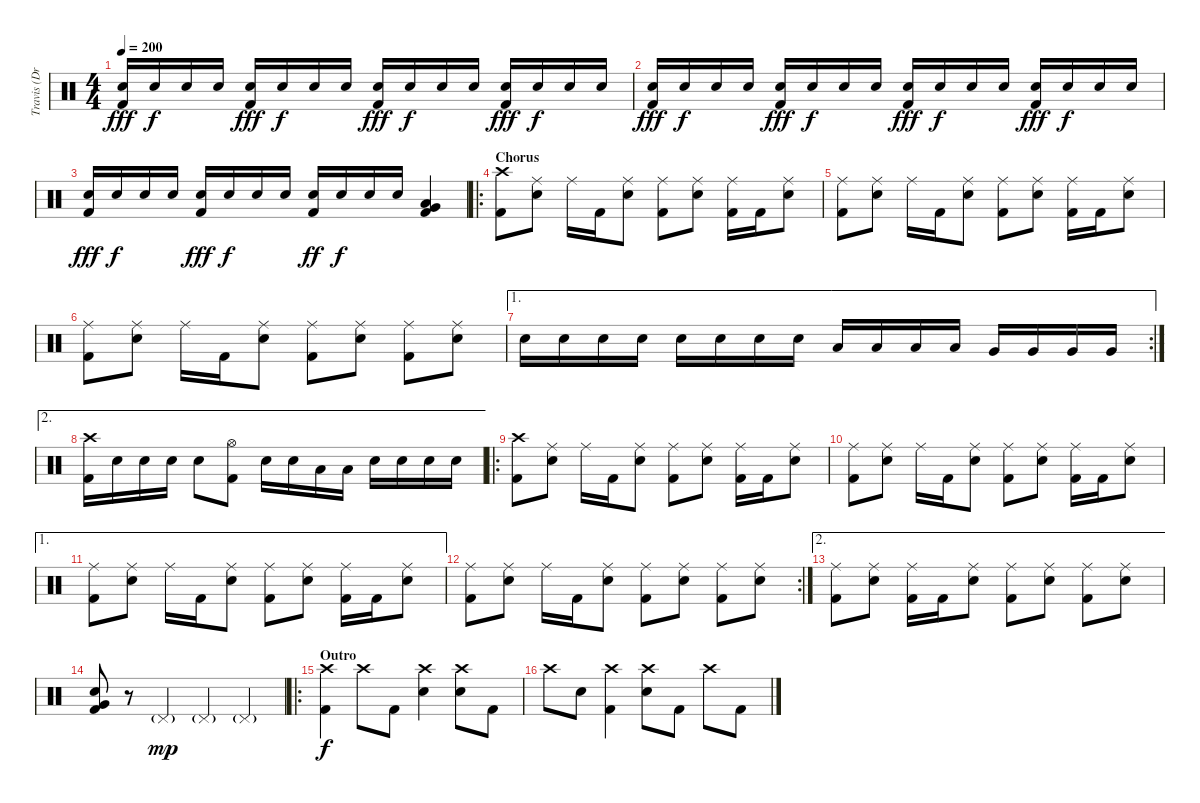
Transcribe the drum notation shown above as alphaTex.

\track ("Travis (Drums)" "Travis (Dr") {instrument percussion}
\staff {score}
\articulation defaults
\ts (4 4)
\tempo 200
\clef neutral
\ks c
("Electric Snare (hit)" "Kick (hit) 2").16{dy fff} "Electric Snare (hit)".16{dy f} "Electric Snare (hit)".16 "Electric Snare (hit)".16 ("Electric Snare (hit)" "Kick (hit) 2").16{dy fff} "Electric Snare (hit)".16{dy f} "Electric Snare (hit)".16 "Electric Snare (hit)".16 ("Electric Snare (hit)" "Kick (hit) 2").16{dy fff} "Electric Snare (hit)".16{dy f} "Electric Snare (hit)".16 "Electric Snare (hit)".16 ("Electric Snare (hit)" "Kick (hit) 2").16{dy fff} "Electric Snare (hit)".16{dy f} "Electric Snare (hit)".16 "Electric Snare (hit)".16 |
("Electric Snare (hit)" "Kick (hit) 2").16{dy fff} "Electric Snare (hit)".16{dy f} "Electric Snare (hit)".16 "Electric Snare (hit)".16 ("Electric Snare (hit)" "Kick (hit) 2").16{dy fff} "Electric Snare (hit)".16{dy f} "Electric Snare (hit)".16 "Electric Snare (hit)".16 ("Electric Snare (hit)" "Kick (hit) 2").16{dy fff} "Electric Snare (hit)".16{dy f} "Electric Snare (hit)".16 "Electric Snare (hit)".16 ("Electric Snare (hit)" "Kick (hit) 2").16{dy fff} "Electric Snare (hit)".16{dy f} "Electric Snare (hit)".16 "Electric Snare (hit)".16 |
("Electric Snare (hit)" "Kick (hit) 2").16{dy fff} "Electric Snare (hit)".16{dy f} "Electric Snare (hit)".16 "Electric Snare (hit)".16 ("Electric Snare (hit)" "Kick (hit) 2").16{dy fff} "Electric Snare (hit)".16{dy f} "Electric Snare (hit)".16 "Electric Snare (hit)".16 ("Electric Snare (hit)" "Kick (hit) 2").16{dy ff} "Electric Snare (hit)".16{dy f} "Electric Snare (hit)".16 "Electric Snare (hit)".16 ("Low Tom (hit)" "Very Low Tom (hit)" "Kick (hit) 2").4 |
\ro
\section ("" "Chorus")
("Crash high (hit)" "Kick (hit) 2").8 ("Ride (middle)" "Electric Snare (hit)").8 "Ride (middle)".16 "Kick (hit) 2".16 ("Ride (middle)" "Electric Snare (hit)").8 ("Ride (middle)" "Kick (hit) 2").8 ("Ride (middle)" "Electric Snare (hit)").8 ("Ride (middle)" "Kick (hit) 2").16 "Kick (hit) 2".16 ("Ride (middle)" "Electric Snare (hit)").8 |
("Ride (middle)" "Kick (hit) 2").8 ("Ride (middle)" "Electric Snare (hit)").8 "Ride (middle)".16 "Kick (hit) 2".16 ("Ride (middle)" "Electric Snare (hit)").8 ("Ride (middle)" "Kick (hit) 2").8 ("Ride (middle)" "Electric Snare (hit)").8 ("Ride (middle)" "Kick (hit) 2").16 "Kick (hit) 2".16 ("Ride (middle)" "Electric Snare (hit)").8 |
("Ride (middle)" "Kick (hit) 2").8 ("Ride (middle)" "Electric Snare (hit)").8 "Ride (middle)".16 "Kick (hit) 2".16 ("Ride (middle)" "Electric Snare (hit)").8 ("Ride (middle)" "Kick (hit) 2").8 ("Ride (middle)" "Electric Snare (hit)").8 ("Ride (middle)" "Kick (hit) 2").8 ("Ride (middle)" "Electric Snare (hit)").8 |
\ae 1
\rc 2 "Electric Snare (hit)".16 "Electric Snare (hit)".16 "Electric Snare (hit)".16 "Electric Snare (hit)".16 "Electric Snare (hit)".16 "Electric Snare (hit)".16 "Electric Snare (hit)".16 "Electric Snare (hit)".16 "Low Tom (hit)".16 "Low Tom (hit)".16 "Low Tom (hit)".16 "Low Tom (hit)".16 "Very Low Tom (hit)".16 "Very Low Tom (hit)".16 "Very Low Tom (hit)".16 "Very Low Tom (hit)".16
|
\ae 2
("Crash high (hit)" "Kick (hit) 2").16 "Electric Snare (hit)".16 "Electric Snare (hit)".16 "Electric Snare (hit)".16 "Electric Snare (hit)".8 ("Hi-Hat (open)" "Kick (hit) 2").8 "Electric Snare (hit)".16 "Electric Snare (hit)".16 "Low Tom (hit)".16 "Low Tom (hit)".16 "Electric Snare (hit)".16 "Electric Snare (hit)".16 "Electric Snare (hit)".16 "Electric Snare (hit)".16 |
\ro
("Crash high (hit)" "Kick (hit) 2").8 ("Ride (middle)" "Electric Snare (hit)").8 "Ride (middle)".16 "Kick (hit) 2".16 ("Ride (middle)" "Electric Snare (hit)").8 ("Ride (middle)" "Kick (hit) 2").8 ("Ride (middle)" "Electric Snare (hit)").8 ("Ride (middle)" "Kick (hit) 2").16 "Kick (hit) 2".16 ("Ride (middle)" "Electric Snare (hit)").8 |
("Ride (middle)" "Kick (hit) 2").8 ("Ride (middle)" "Electric Snare (hit)").8 "Ride (middle)".16 "Kick (hit) 2".16 ("Ride (middle)" "Electric Snare (hit)").8 ("Ride (middle)" "Kick (hit) 2").8 ("Ride (middle)" "Electric Snare (hit)").8 ("Ride (middle)" "Kick (hit) 2").16 "Kick (hit) 2".16 ("Ride (middle)" "Electric Snare (hit)").8 |
\ae 1
("Ride (middle)" "Kick (hit) 2").8 ("Ride (middle)" "Electric Snare (hit)").8 "Ride (middle)".16 "Kick (hit) 2".16 ("Ride (middle)" "Electric Snare (hit)").8 ("Ride (middle)" "Kick (hit) 2").8 ("Ride (middle)" "Electric Snare (hit)").8 ("Ride (middle)" "Kick (hit) 2").16 "Kick (hit) 2".16 ("Ride (middle)" "Electric Snare (hit)").8 |
\rc 2
("Ride (middle)" "Kick (hit) 2").8 ("Ride (middle)" "Electric Snare (hit)").8 "Ride (middle)".16 "Kick (hit) 2".16 ("Ride (middle)" "Electric Snare (hit)").8 ("Ride (middle)" "Kick (hit) 2").8 ("Ride (middle)" "Electric Snare (hit)").8 ("Ride (middle)" "Kick (hit) 2").8 ("Ride (middle)" "Electric Snare (hit)").8 |
\ae 2
("Ride (middle)" "Kick (hit) 2").8 ("Ride (middle)" "Electric Snare (hit)").8 ("Ride (middle)" "Kick (hit) 2").16 "Kick (hit) 2".16 ("Ride (middle)" "Electric Snare (hit)").8 ("Ride (middle)" "Kick (hit) 2").8 ("Ride (middle)" "Electric Snare (hit)").8 ("Ride (middle)" "Kick (hit) 2").8 ("Ride (middle)" "Electric Snare (hit)").8 |
("Very Low Tom (hit)" "Electric Snare (hit)" "Kick (hit) 2").8 r.8 "Pedal Hi-Hat (hit)"{g}.4{dy mp} "Pedal Hi-Hat (hit)"{g}.4 "Pedal Hi-Hat (hit)"{g}.4 |
\ro
\section ("" "Outro")
("Crash high (hit)" "Kick (hit) 2").4{dy f} "Crash high (hit)".8 "Kick (hit) 2".8 ("Crash high (hit)" "Electric Snare (hit)").4 ("Crash high (hit)" "Electric Snare (hit)").8 "Kick (hit) 2".8 |
"Crash high (hit)".8 "Electric Snare (hit)".8 ("Crash high (hit)" "Kick (hit) 2").4 ("Crash high (hit)" "Electric Snare (hit)").8 "Kick (hit) 2".8 "Crash high (hit)".8 "Kick (hit) 2".8
